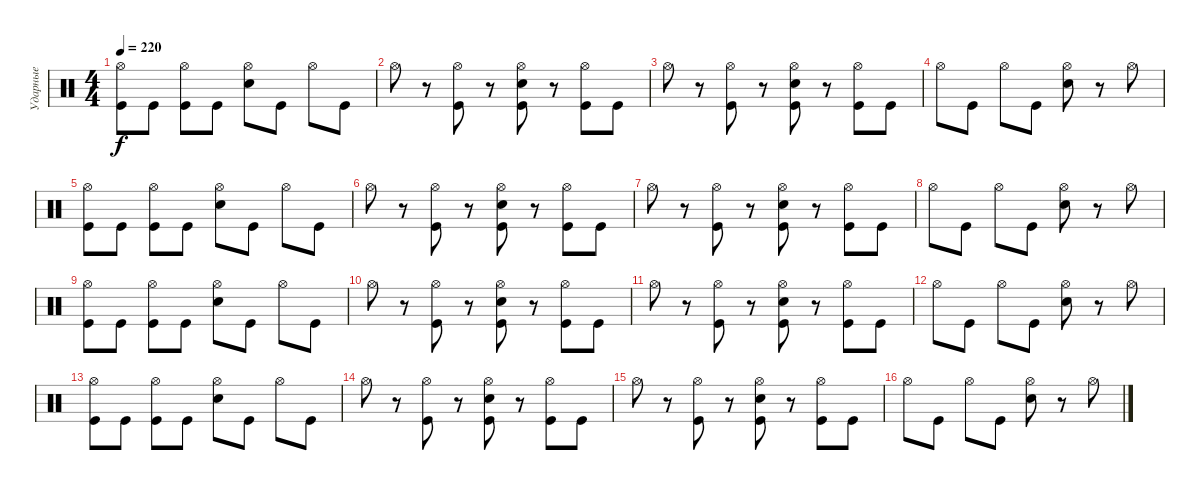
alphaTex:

\track ("Ударные" "Ударные") {instrument percussion}
\staff {score}
\articulation defaults
\ts (4 4)
\tempo 220
\clef neutral
\ks c
("Hi-Hat (open)" "Kick (hit)").8{dy f} "Kick (hit)".8 ("Hi-Hat (open)" "Kick (hit)").8 "Kick (hit)".8 ("Hi-Hat (open)" "Electric Snare (hit)").8 "Kick (hit)".8 "Hi-Hat (open)".8 "Kick (hit)".8 |
"Hi-Hat (open)".8 r.8 ("Hi-Hat (open)" "Kick (hit)").8 r.8 ("Hi-Hat (open)" "Electric Snare (hit)" "Kick (hit)").8 r.8 ("Hi-Hat (open)" "Kick (hit)").8 "Kick (hit)".8 |
"Hi-Hat (open)".8 r.8 ("Hi-Hat (open)" "Kick (hit)").8 r.8 ("Hi-Hat (open)" "Electric Snare (hit)" "Kick (hit)").8 r.8 ("Hi-Hat (open)" "Kick (hit)").8 "Kick (hit)".8 |
"Hi-Hat (open)".8 "Kick (hit)".8 "Hi-Hat (open)".8 "Kick (hit)".8 ("Hi-Hat (open)" "Electric Snare (hit)").8 r.8 "Hi-Hat (open)".8 |
("Hi-Hat (open)" "Kick (hit)").8 "Kick (hit)".8 ("Hi-Hat (open)" "Kick (hit)").8 "Kick (hit)".8 ("Hi-Hat (open)" "Electric Snare (hit)").8 "Kick (hit)".8 "Hi-Hat (open)".8 "Kick (hit)".8 |
"Hi-Hat (open)".8 r.8 ("Hi-Hat (open)" "Kick (hit)").8 r.8 ("Hi-Hat (open)" "Electric Snare (hit)" "Kick (hit)").8 r.8 ("Hi-Hat (open)" "Kick (hit)").8 "Kick (hit)".8 |
"Hi-Hat (open)".8 r.8 ("Hi-Hat (open)" "Kick (hit)").8 r.8 ("Hi-Hat (open)" "Electric Snare (hit)" "Kick (hit)").8 r.8 ("Hi-Hat (open)" "Kick (hit)").8 "Kick (hit)".8 |
"Hi-Hat (open)".8 "Kick (hit)".8 "Hi-Hat (open)".8 "Kick (hit)".8 ("Hi-Hat (open)" "Electric Snare (hit)").8 r.8 "Hi-Hat (open)".8 |
("Hi-Hat (open)" "Kick (hit)").8 "Kick (hit)".8 ("Hi-Hat (open)" "Kick (hit)").8 "Kick (hit)".8 ("Hi-Hat (open)" "Electric Snare (hit)").8 "Kick (hit)".8 "Hi-Hat (open)".8 "Kick (hit)".8 |
"Hi-Hat (open)".8 r.8 ("Hi-Hat (open)" "Kick (hit)").8 r.8 ("Hi-Hat (open)" "Electric Snare (hit)" "Kick (hit)").8 r.8 ("Hi-Hat (open)" "Kick (hit)").8 "Kick (hit)".8 |
"Hi-Hat (open)".8 r.8 ("Hi-Hat (open)" "Kick (hit)").8 r.8 ("Hi-Hat (open)" "Electric Snare (hit)" "Kick (hit)").8 r.8 ("Hi-Hat (open)" "Kick (hit)").8 "Kick (hit)".8 |
"Hi-Hat (open)".8 "Kick (hit)".8 "Hi-Hat (open)".8 "Kick (hit)".8 ("Hi-Hat (open)" "Electric Snare (hit)").8 r.8 "Hi-Hat (open)".8 |
("Hi-Hat (open)" "Kick (hit)").8 "Kick (hit)".8 ("Hi-Hat (open)" "Kick (hit)").8 "Kick (hit)".8 ("Hi-Hat (open)" "Electric Snare (hit)").8 "Kick (hit)".8 "Hi-Hat (open)".8 "Kick (hit)".8 |
"Hi-Hat (open)".8 r.8 ("Hi-Hat (open)" "Kick (hit)").8 r.8 ("Hi-Hat (open)" "Electric Snare (hit)" "Kick (hit)").8 r.8 ("Hi-Hat (open)" "Kick (hit)").8 "Kick (hit)".8 |
"Hi-Hat (open)".8 r.8 ("Hi-Hat (open)" "Kick (hit)").8 r.8 ("Hi-Hat (open)" "Electric Snare (hit)" "Kick (hit)").8 r.8 ("Hi-Hat (open)" "Kick (hit)").8 "Kick (hit)".8 |
"Hi-Hat (open)".8 "Kick (hit)".8 "Hi-Hat (open)".8 "Kick (hit)".8 ("Hi-Hat (open)" "Electric Snare (hit)").8 r.8 "Hi-Hat (open)".8
